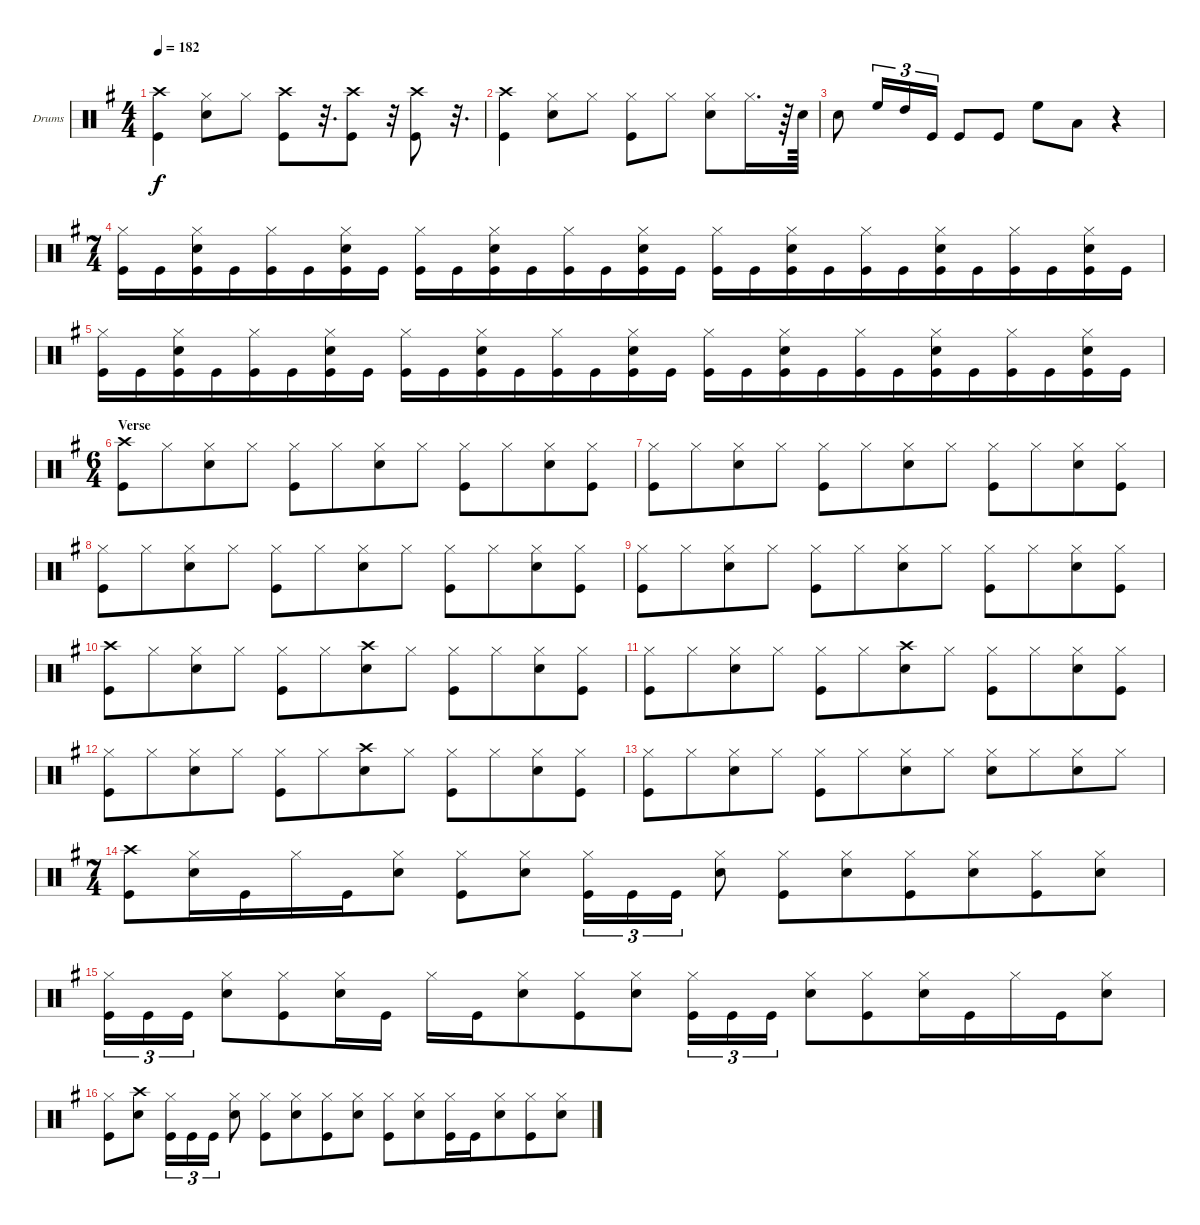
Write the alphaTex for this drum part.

\bracketExtendMode groupsimilarinstruments
\firstSystemTrackNameOrientation horizontal
\otherSystemsTrackNameOrientation horizontal
\track ("Drumkit" "Drums") {instrument percussion}
\staff {score}
\articulation defaults
\ts (4 4)
\tempo 182
\clef neutral
\scale
1.04288
\ks g
("Kick (hit)" "Crash high (hit)").4{dy f} ("Hi-Hat (closed)" "Snare (hit) 2").8 "Hi-Hat (closed)".8 ("Kick (hit)" "Crash high (hit)").8 r.32{d} ("Kick (hit)" "Crash high (hit)").8 r.32 ("Kick (hit)" "Crash high (hit)").8 r.32{d} |
\scale
0.957125 ("Kick (hit)" "Crash high (hit)").4 ("Hi-Hat (closed)" "Snare (hit) 2").8 "Hi-Hat (closed)".8 ("Hi-Hat (closed)" "Kick (hit)").8 "Hi-Hat (closed)".8 ("Snare (hit) 2" "Hi-Hat (closed)").8 "Hi-Hat (closed)".16{d} r.64 "Snare (hit) 2".64 |
\scale
1.04288 "Snare (hit) 2".8 "High Floor Tom (hit)".16{tu (3 2)} "High Tom (hit)".16{tu (3 2)} "Kick (hit)".16{tu (3 2)} "Kick (hit)".8 "Kick (hit)".8 "High Floor Tom (hit)".8 "Low Tom (hit)".8 r.4 |
\ts (7 4)
\beaming (8 4 4 6)
\scale
0.957125 ("Hi-Hat (closed)" "Kick (hit)").16 "Kick (hit)".16 ("Snare (hit) 2" "Hi-Hat (closed)" "Kick (hit)").16 "Kick (hit)".16 ("Hi-Hat (closed)" "Kick (hit)").16 "Kick (hit)".16 ("Snare (hit) 2" "Hi-Hat (closed)" "Kick (hit)").16 "Kick (hit)".16 ("Hi-Hat (closed)" "Kick (hit)").16 "Kick (hit)".16 ("Snare (hit) 2" "Hi-Hat (closed)" "Kick (hit)").16 "Kick (hit)".16 ("Hi-Hat (closed)" "Kick (hit)").16 "Kick (hit)".16 ("Snare (hit) 2" "Hi-Hat (closed)" "Kick (hit)").16 "Kick (hit)".16 ("Hi-Hat (closed)" "Kick (hit)").16 "Kick (hit)".16 ("Snare (hit) 2" "Hi-Hat (closed)" "Kick (hit)").16 "Kick (hit)".16 ("Hi-Hat (closed)" "Kick (hit)").16 "Kick (hit)".16 ("Snare (hit) 2" "Hi-Hat (closed)" "Kick (hit)").16 "Kick (hit)".16 ("Hi-Hat (closed)" "Kick (hit)").16 "Kick (hit)".16 ("Snare (hit) 2" "Hi-Hat (closed)" "Kick (hit)").16 "Kick (hit)".16 |
\scale
1.04288 ("Hi-Hat (closed)" "Kick (hit)").16 "Kick (hit)".16 ("Snare (hit) 2" "Hi-Hat (closed)" "Kick (hit)").16 "Kick (hit)".16 ("Hi-Hat (closed)" "Kick (hit)").16 "Kick (hit)".16 ("Snare (hit) 2" "Hi-Hat (closed)" "Kick (hit)").16 "Kick (hit)".16 ("Hi-Hat (closed)" "Kick (hit)").16 "Kick (hit)".16 ("Snare (hit) 2" "Hi-Hat (closed)" "Kick (hit)").16 "Kick (hit)".16 ("Hi-Hat (closed)" "Kick (hit)").16 "Kick (hit)".16 ("Snare (hit) 2" "Hi-Hat (closed)" "Kick (hit)").16 "Kick (hit)".16 ("Hi-Hat (closed)" "Kick (hit)").16 "Kick (hit)".16 ("Snare (hit) 2" "Hi-Hat (closed)" "Kick (hit)").16 "Kick (hit)".16 ("Hi-Hat (closed)" "Kick (hit)").16 "Kick (hit)".16 ("Snare (hit) 2" "Hi-Hat (closed)" "Kick (hit)").16 "Kick (hit)".16 ("Hi-Hat (closed)" "Kick (hit)").16 "Kick (hit)".16 ("Snare (hit) 2" "Hi-Hat (closed)" "Kick (hit)").16 "Kick (hit)".16 |
\ts (6 4)
\beaming (8 4 4 6)
\section ("" "Verse")
\scale
0.957125 ("Kick (hit)" "Crash high (hit)").8 "Hi-Hat (closed)".8 ("Snare (hit) 2" "Hi-Hat (closed)").8 "Hi-Hat (closed)".8 ("Kick (hit)" "Hi-Hat (closed)").8 "Hi-Hat (closed)".8 ("Snare (hit) 2" "Hi-Hat (closed)").8 "Hi-Hat (closed)".8 ("Kick (hit)" "Hi-Hat (closed)").8 "Hi-Hat (closed)".8 ("Snare (hit) 2" "Hi-Hat (closed)").8 ("Kick (hit)" "Hi-Hat (closed)").8 |
\scale
1.04288 ("Hi-Hat (closed)" "Kick (hit)").8 "Hi-Hat (closed)".8 ("Snare (hit) 2" "Hi-Hat (closed)").8 "Hi-Hat (closed)".8 ("Kick (hit)" "Hi-Hat (closed)").8 "Hi-Hat (closed)".8 ("Snare (hit) 2" "Hi-Hat (closed)").8 "Hi-Hat (closed)".8 ("Kick (hit)" "Hi-Hat (closed)").8 "Hi-Hat (closed)".8 ("Snare (hit) 2" "Hi-Hat (closed)").8 ("Kick (hit)" "Hi-Hat (closed)").8 |
\scale
0.957125 ("Hi-Hat (closed)" "Kick (hit)").8 "Hi-Hat (closed)".8 ("Snare (hit) 2" "Hi-Hat (closed)").8 "Hi-Hat (closed)".8 ("Kick (hit)" "Hi-Hat (closed)").8 "Hi-Hat (closed)".8 ("Snare (hit) 2" "Hi-Hat (closed)").8 "Hi-Hat (closed)".8 ("Kick (hit)" "Hi-Hat (closed)").8 "Hi-Hat (closed)".8 ("Snare (hit) 2" "Hi-Hat (closed)").8 ("Kick (hit)" "Hi-Hat (closed)").8 |
\scale
1.04288 ("Hi-Hat (closed)" "Kick (hit)").8 "Hi-Hat (closed)".8 ("Snare (hit) 2" "Hi-Hat (closed)").8 "Hi-Hat (closed)".8 ("Kick (hit)" "Hi-Hat (closed)").8 "Hi-Hat (closed)".8 ("Snare (hit) 2" "Hi-Hat (closed)").8 "Hi-Hat (closed)".8 ("Kick (hit)" "Hi-Hat (closed)").8 "Hi-Hat (closed)".8 ("Snare (hit) 2" "Hi-Hat (closed)").8 ("Kick (hit)" "Hi-Hat (closed)").8 |
\scale
0.957125 ("Kick (hit)" "Crash high (hit)").8 "Hi-Hat (closed)".8 ("Snare (hit) 2" "Hi-Hat (closed)").8 "Hi-Hat (closed)".8 ("Kick (hit)" "Hi-Hat (closed)").8 "Hi-Hat (closed)".8 ("Crash high (hit)" "Snare (hit) 2").8 "Hi-Hat (closed)".8 ("Kick (hit)" "Hi-Hat (closed)").8 "Hi-Hat (closed)".8 ("Snare (hit) 2" "Hi-Hat (closed)").8 ("Kick (hit)" "Hi-Hat (closed)").8 |
\scale
1.04288 ("Hi-Hat (closed)" "Kick (hit)").8 "Hi-Hat (closed)".8 ("Snare (hit) 2" "Hi-Hat (closed)").8 "Hi-Hat (closed)".8 ("Kick (hit)" "Hi-Hat (closed)").8 "Hi-Hat (closed)".8 ("Crash high (hit)" "Snare (hit) 2").8 "Hi-Hat (closed)".8 ("Kick (hit)" "Hi-Hat (closed)").8 "Hi-Hat (closed)".8 ("Snare (hit) 2" "Hi-Hat (closed)").8 ("Kick (hit)" "Hi-Hat (closed)").8 |
\scale
0.957125 ("Hi-Hat (closed)" "Kick (hit)").8 "Hi-Hat (closed)".8 ("Snare (hit) 2" "Hi-Hat (closed)").8 "Hi-Hat (closed)".8 ("Kick (hit)" "Hi-Hat (closed)").8 "Hi-Hat (closed)".8 ("Crash high (hit)" "Snare (hit) 2").8 "Hi-Hat (closed)".8 ("Kick (hit)" "Hi-Hat (closed)").8 "Hi-Hat (closed)".8 ("Snare (hit) 2" "Hi-Hat (closed)").8 ("Kick (hit)" "Hi-Hat (closed)").8 |
\scale
1.04288 ("Hi-Hat (closed)" "Kick (hit)").8 "Hi-Hat (closed)".8 ("Snare (hit) 2" "Hi-Hat (closed)").8 "Hi-Hat (closed)".8 ("Kick (hit)" "Hi-Hat (closed)").8 "Hi-Hat (closed)".8 ("Snare (hit) 2" "Hi-Hat (closed)").8 "Hi-Hat (closed)".8 ("Snare (hit) 2" "Hi-Hat (closed)").8 "Hi-Hat (closed)".8 ("Snare (hit) 2" "Hi-Hat (closed)").8 "Hi-Hat (closed)".8 |
\ts (7 4)
\beaming (8 4 4 6)
\scale
0.957125 ("Kick (hit)" "Crash high (hit)").8 ("Snare (hit) 2" "Hi-Hat (closed)").16 "Kick (hit)".16 "Hi-Hat (closed)".16 "Kick (hit)".16 ("Snare (hit) 2" "Hi-Hat (closed)").8 ("Kick (hit)" "Hi-Hat (closed)").8 ("Snare (hit) 2" "Hi-Hat (closed)").8 ("Kick (hit)" "Hi-Hat (closed)").16{tu (3 2)} "Kick (hit)".16{tu (3 2)} "Kick (hit)".16{tu (3 2)} ("Snare (hit) 2" "Hi-Hat (closed)").8 ("Kick (hit)" "Hi-Hat (closed)").8 ("Snare (hit) 2" "Hi-Hat (closed)").8 ("Kick (hit)" "Hi-Hat (closed)").8 ("Snare (hit) 2" "Hi-Hat (closed)").8 ("Kick (hit)" "Hi-Hat (closed)").8 ("Snare (hit) 2" "Hi-Hat (closed)").8 |
\scale
1.04288 ("Kick (hit)" "Hi-Hat (closed)").16{tu (3 2)} "Kick (hit)".16{tu (3 2)} "Kick (hit)".16{tu (3 2)} ("Snare (hit) 2" "Hi-Hat (closed)").8 ("Kick (hit)" "Hi-Hat (closed)").8 ("Snare (hit) 2" "Hi-Hat (closed)").16 "Kick (hit)".16 "Hi-Hat (closed)".16 "Kick (hit)".16 ("Snare (hit) 2" "Hi-Hat (closed)").8 ("Kick (hit)" "Hi-Hat (closed)").8 ("Snare (hit) 2" "Hi-Hat (closed)").8 ("Kick (hit)" "Hi-Hat (closed)").16{tu (3 2)} "Kick (hit)".16{tu (3 2)} "Kick (hit)".16{tu (3 2)} ("Snare (hit) 2" "Hi-Hat (closed)").8 ("Kick (hit)" "Hi-Hat (closed)").8 ("Snare (hit) 2" "Hi-Hat (closed)").16 "Kick (hit)".16 "Hi-Hat (closed)".16 "Kick (hit)".16 ("Snare (hit) 2" "Hi-Hat (closed)").8 |
\scale
0.957125 ("Kick (hit)" "Hi-Hat (closed)").8 ("Crash high (hit)" "Snare (hit) 2").8 ("Kick (hit)" "Hi-Hat (closed)").16{tu (3 2)} "Kick (hit)".16{tu (3 2)} "Kick (hit)".16{tu (3 2)} ("Snare (hit) 2" "Hi-Hat (closed)").8 ("Hi-Hat (closed)" "Kick (hit)").8 ("Hi-Hat (closed)" "Snare (hit) 2").8 ("Hi-Hat (closed)" "Kick (hit)").8 ("Snare (hit) 2" "Hi-Hat (closed)").8 ("Hi-Hat (closed)" "Kick (hit)").8 ("Snare (hit) 2" "Hi-Hat (closed)").8 ("Hi-Hat (closed)" "Kick (hit)").16 "Kick (hit)".16 ("Snare (hit) 2" "Hi-Hat (closed)").8 ("Hi-Hat (closed)" "Kick (hit)").8 ("Snare (hit) 2" "Hi-Hat (closed)").8
